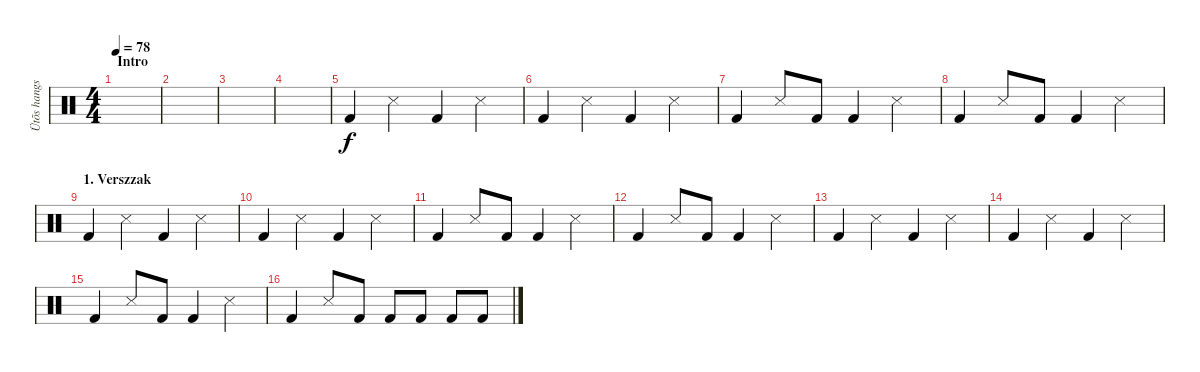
\track ("Ütõs hangszer" "Ütõs hangs") {instrument percussion}
\staff {score}
\articulation defaults
\ts (4 4)
\section ("" "Intro")
\tempo 78
\clef neutral
\ks c
|
|
|
|
"Kick (hit) 2".4 "Snare (side stick) 3".4 "Kick (hit) 2".4 "Snare (side stick) 3".4 |
"Kick (hit) 2".4 "Snare (side stick) 3".4 "Kick (hit) 2".4 "Snare (side stick) 3".4 |
"Kick (hit) 2".4 "Snare (side stick) 3".8 "Kick (hit) 2".8 "Kick (hit) 2".4 "Snare (side stick) 3".4 |
"Kick (hit) 2".4 "Snare (side stick) 3".8 "Kick (hit) 2".8 "Kick (hit) 2".4 "Snare (side stick) 3".4 |
\section ("" "1. Verszzak")
"Kick (hit) 2".4 "Snare (side stick) 3".4 "Kick (hit) 2".4 "Snare (side stick) 3".4 |
"Kick (hit) 2".4 "Snare (side stick) 3".4 "Kick (hit) 2".4 "Snare (side stick) 3".4 |
"Kick (hit) 2".4 "Snare (side stick) 3".8 "Kick (hit) 2".8 "Kick (hit) 2".4 "Snare (side stick) 3".4 |
"Kick (hit) 2".4 "Snare (side stick) 3".8 "Kick (hit) 2".8 "Kick (hit) 2".4 "Snare (side stick) 3".4 |
"Kick (hit) 2".4 "Snare (side stick) 3".4 "Kick (hit) 2".4 "Snare (side stick) 3".4 |
"Kick (hit) 2".4 "Snare (side stick) 3".4 "Kick (hit) 2".4 "Snare (side stick) 3".4 |
"Kick (hit) 2".4 "Snare (side stick) 3".8 "Kick (hit) 2".8 "Kick (hit) 2".4 "Snare (side stick) 3".4 |
"Kick (hit) 2".4 "Snare (side stick) 3".8 "Kick (hit) 2".8 "Kick (hit) 2".8 "Kick (hit) 2".8 "Kick (hit) 2".8 "Kick (hit) 2".8
